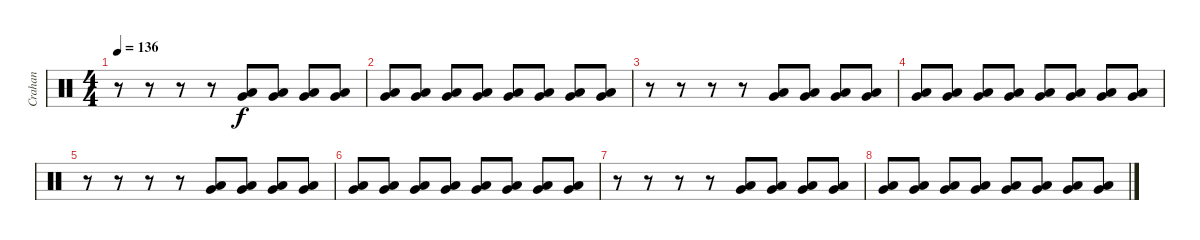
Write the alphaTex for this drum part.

\track ("Crahan" "Crahan") {instrument percussion}
\staff {score}
\articulation defaults
\ts (4 4)
\tempo 136
\clef neutral
\ks c
r.8{dy f} r.8 r.8 r.8 ("Very Low Tom (hit)" "Low Floor Tom (hit)").8 ("Very Low Tom (hit)" "Low Floor Tom (hit)").8 ("Very Low Tom (hit)" "Low Floor Tom (hit)").8 ("Very Low Tom (hit)" "Low Floor Tom (hit)").8 |
("Very Low Tom (hit)" "Low Floor Tom (hit)").8 ("Very Low Tom (hit)" "Low Floor Tom (hit)").8 ("Very Low Tom (hit)" "Low Floor Tom (hit)").8 ("Very Low Tom (hit)" "Low Floor Tom (hit)").8 ("Very Low Tom (hit)" "Low Floor Tom (hit)").8 ("Very Low Tom (hit)" "Low Floor Tom (hit)").8 ("Very Low Tom (hit)" "Low Floor Tom (hit)").8 ("Very Low Tom (hit)" "Low Floor Tom (hit)").8 |
r.8 r.8 r.8 r.8 ("Very Low Tom (hit)" "Low Floor Tom (hit)").8 ("Very Low Tom (hit)" "Low Floor Tom (hit)").8 ("Very Low Tom (hit)" "Low Floor Tom (hit)").8 ("Very Low Tom (hit)" "Low Floor Tom (hit)").8 |
("Very Low Tom (hit)" "Low Floor Tom (hit)").8 ("Very Low Tom (hit)" "Low Floor Tom (hit)").8 ("Very Low Tom (hit)" "Low Floor Tom (hit)").8 ("Very Low Tom (hit)" "Low Floor Tom (hit)").8 ("Very Low Tom (hit)" "Low Floor Tom (hit)").8 ("Very Low Tom (hit)" "Low Floor Tom (hit)").8 ("Very Low Tom (hit)" "Low Floor Tom (hit)").8 ("Very Low Tom (hit)" "Low Floor Tom (hit)").8 |
r.8 r.8 r.8 r.8 ("Very Low Tom (hit)" "Low Floor Tom (hit)").8 ("Very Low Tom (hit)" "Low Floor Tom (hit)").8 ("Very Low Tom (hit)" "Low Floor Tom (hit)").8 ("Very Low Tom (hit)" "Low Floor Tom (hit)").8 |
("Very Low Tom (hit)" "Low Floor Tom (hit)").8 ("Very Low Tom (hit)" "Low Floor Tom (hit)").8 ("Very Low Tom (hit)" "Low Floor Tom (hit)").8 ("Very Low Tom (hit)" "Low Floor Tom (hit)").8 ("Very Low Tom (hit)" "Low Floor Tom (hit)").8 ("Very Low Tom (hit)" "Low Floor Tom (hit)").8 ("Very Low Tom (hit)" "Low Floor Tom (hit)").8 ("Very Low Tom (hit)" "Low Floor Tom (hit)").8 |
r.8 r.8 r.8 r.8 ("Very Low Tom (hit)" "Low Floor Tom (hit)").8 ("Very Low Tom (hit)" "Low Floor Tom (hit)").8 ("Very Low Tom (hit)" "Low Floor Tom (hit)").8 ("Very Low Tom (hit)" "Low Floor Tom (hit)").8 |
("Very Low Tom (hit)" "Low Floor Tom (hit)").8 ("Very Low Tom (hit)" "Low Floor Tom (hit)").8 ("Very Low Tom (hit)" "Low Floor Tom (hit)").8 ("Very Low Tom (hit)" "Low Floor Tom (hit)").8 ("Very Low Tom (hit)" "Low Floor Tom (hit)").8 ("Very Low Tom (hit)" "Low Floor Tom (hit)").8 ("Very Low Tom (hit)" "Low Floor Tom (hit)").8 ("Very Low Tom (hit)" "Low Floor Tom (hit)").8
